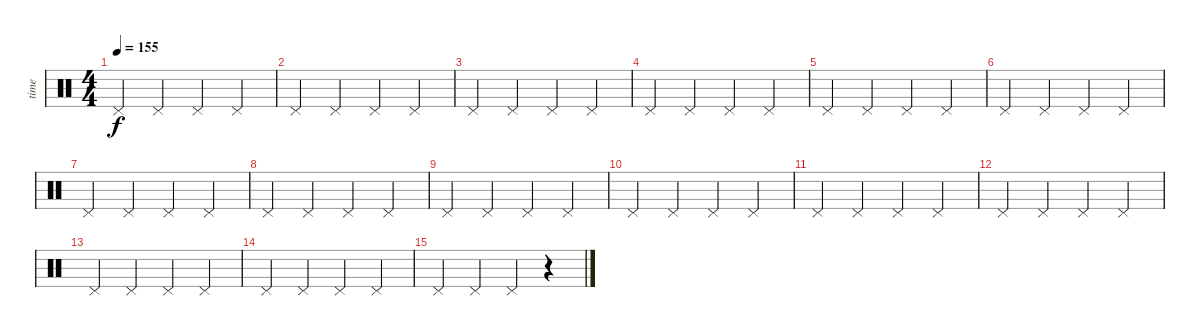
\track ("time" "time") {instrument percussion}
\staff {score}
\articulation defaults
\ts (4 4)
\tempo 155
\clef neutral
\ks c "Pedal Hi-Hat (hit)".4{dy f} "Pedal Hi-Hat (hit)".4 "Pedal Hi-Hat (hit)".4 "Pedal Hi-Hat (hit)".4
|
"Pedal Hi-Hat (hit)".4 "Pedal Hi-Hat (hit)".4 "Pedal Hi-Hat (hit)".4 "Pedal Hi-Hat (hit)".4 |
"Pedal Hi-Hat (hit)".4 "Pedal Hi-Hat (hit)".4 "Pedal Hi-Hat (hit)".4 "Pedal Hi-Hat (hit)".4 |
"Pedal Hi-Hat (hit)".4 "Pedal Hi-Hat (hit)".4 "Pedal Hi-Hat (hit)".4 "Pedal Hi-Hat (hit)".4 |
"Pedal Hi-Hat (hit)".4 "Pedal Hi-Hat (hit)".4 "Pedal Hi-Hat (hit)".4 "Pedal Hi-Hat (hit)".4 |
"Pedal Hi-Hat (hit)".4 "Pedal Hi-Hat (hit)".4 "Pedal Hi-Hat (hit)".4 "Pedal Hi-Hat (hit)".4 |
"Pedal Hi-Hat (hit)".4 "Pedal Hi-Hat (hit)".4 "Pedal Hi-Hat (hit)".4 "Pedal Hi-Hat (hit)".4 |
"Pedal Hi-Hat (hit)".4 "Pedal Hi-Hat (hit)".4 "Pedal Hi-Hat (hit)".4 "Pedal Hi-Hat (hit)".4 |
"Pedal Hi-Hat (hit)".4 "Pedal Hi-Hat (hit)".4 "Pedal Hi-Hat (hit)".4 "Pedal Hi-Hat (hit)".4 |
"Pedal Hi-Hat (hit)".4 "Pedal Hi-Hat (hit)".4 "Pedal Hi-Hat (hit)".4 "Pedal Hi-Hat (hit)".4 |
"Pedal Hi-Hat (hit)".4 "Pedal Hi-Hat (hit)".4 "Pedal Hi-Hat (hit)".4 "Pedal Hi-Hat (hit)".4 |
"Pedal Hi-Hat (hit)".4 "Pedal Hi-Hat (hit)".4 "Pedal Hi-Hat (hit)".4 "Pedal Hi-Hat (hit)".4 |
"Pedal Hi-Hat (hit)".4 "Pedal Hi-Hat (hit)".4 "Pedal Hi-Hat (hit)".4 "Pedal Hi-Hat (hit)".4 |
"Pedal Hi-Hat (hit)".4 "Pedal Hi-Hat (hit)".4 "Pedal Hi-Hat (hit)".4 "Pedal Hi-Hat (hit)".4 |
"Pedal Hi-Hat (hit)".4 "Pedal Hi-Hat (hit)".4 "Pedal Hi-Hat (hit)".4 r.4
